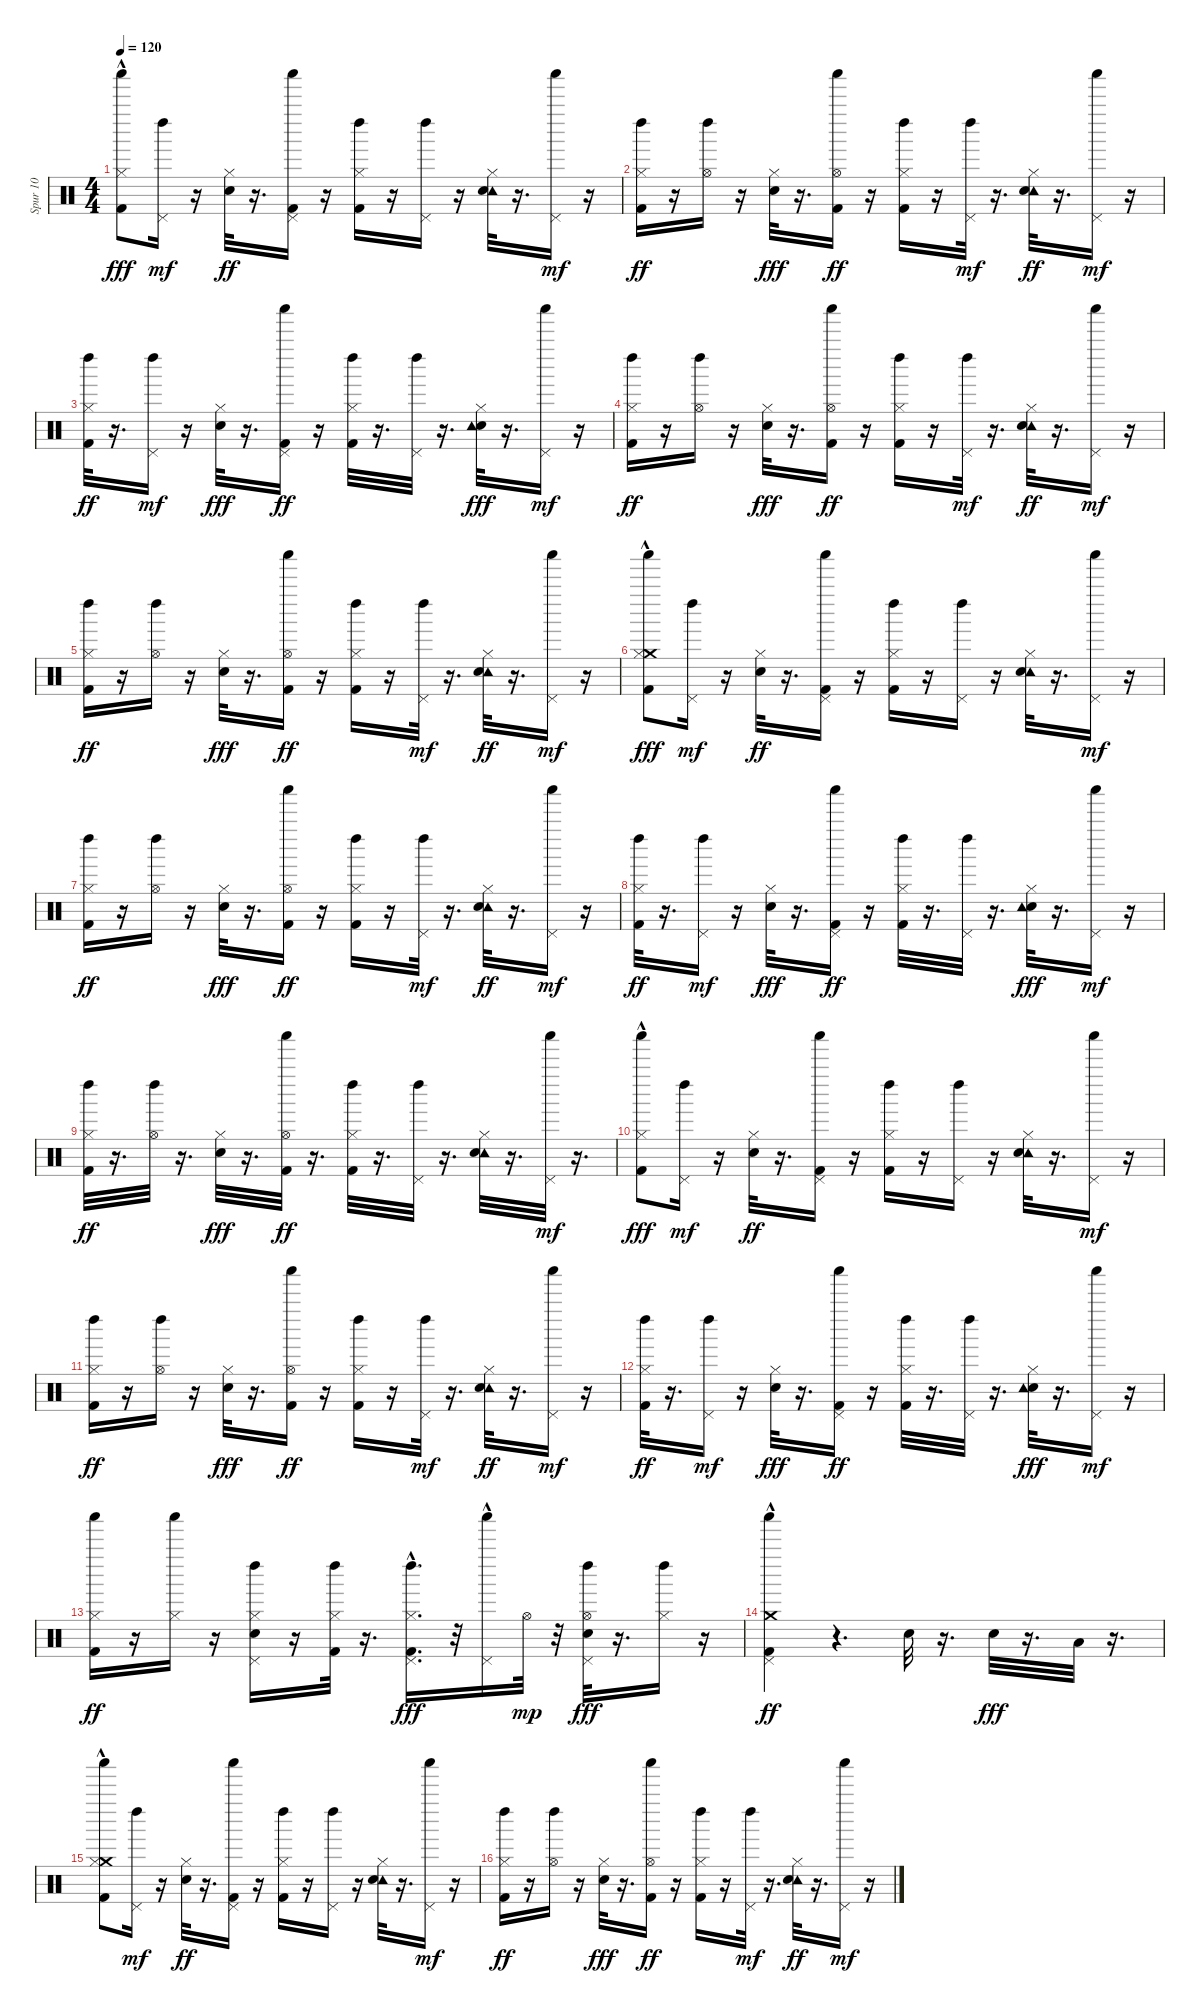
\track ("Spur 10" "Spur 10") {instrument percussion}
\staff {score}
\articulation defaults
\ts (4 4)
\tempo 120
\clef neutral
\ks c
("Shaker (hit)"{hac} "Kick (hit) 2" "Hi-Hat (closed)").8{dy fff} ("Left Maraca (hit)" "Pedal Hi-Hat (hit)").16{dy mf} r.16 ("Electric Snare (hit)" "Hi-Hat (closed)").32{dy ff} r.16{d} ("Shaker (hit)" "Kick (hit) 2" "Pedal Hi-Hat (hit)").16 r.16 ("Left Maraca (hit)" "Hi-Hat (closed)" "Kick (hit) 2").16 r.16 ("Left Maraca (hit)" "Pedal Hi-Hat (hit)").16 r.16 ("Tambourine (hit)" "Electric Snare (hit)" "Hi-Hat (closed)").32 r.16{d} ("Pedal Hi-Hat (hit)" "Shaker (hit)").16{dy mf} r.16 |
("Kick (hit) 2" "Hi-Hat (closed)" "Left Maraca (hit)").16{dy ff} r.16 ("Left Maraca (hit)" "Hi-Hat (open)").16 r.16 ("Hi-Hat (closed)" "Electric Snare (hit)").32{dy fff} r.16{d} ("Shaker (hit)" "Hi-Hat (open)" "Kick (hit) 2").16{dy ff} r.16 ("Left Maraca (hit)" "Hi-Hat (closed)" "Kick (hit) 2").16 r.16 ("Left Maraca (hit)" "Pedal Hi-Hat (hit)").32{dy mf} r.16{d} ("Tambourine (hit)" "Electric Snare (hit)" "Hi-Hat (closed)").32{dy ff} r.16{d} ("Shaker (hit)" "Pedal Hi-Hat (hit)").16{dy mf} r.16 |
("Kick (hit) 2" "Hi-Hat (closed)" "Left Maraca (hit)").32{dy ff} r.16{d} ("Left Maraca (hit)" "Pedal Hi-Hat (hit)").16{dy mf} r.16 ("Hi-Hat (closed)" "Electric Snare (hit)").32{dy fff} r.16{d} ("Shaker (hit)" "Kick (hit) 2" "Pedal Hi-Hat (hit)").16{dy ff} r.16 ("Left Maraca (hit)" "Hi-Hat (closed)" "Kick (hit) 2").32 r.16{d} ("Pedal Hi-Hat (hit)" "Left Maraca (hit)").32 r.16{d} ("Hi-Hat (closed)" "Electric Snare (hit)" "Tambourine (hit)").32{dy fff} r.16{d} ("Shaker (hit)" "Pedal Hi-Hat (hit)").16{dy mf} r.16 |
("Kick (hit) 2" "Hi-Hat (closed)" "Left Maraca (hit)").16{dy ff} r.16 ("Left Maraca (hit)" "Hi-Hat (open)").16 r.16 ("Hi-Hat (closed)" "Electric Snare (hit)").32{dy fff} r.16{d} ("Shaker (hit)" "Hi-Hat (open)" "Kick (hit) 2").16{dy ff} r.16 ("Left Maraca (hit)" "Hi-Hat (closed)" "Kick (hit) 2").16 r.16 ("Left Maraca (hit)" "Pedal Hi-Hat (hit)").32{dy mf} r.16{d} ("Tambourine (hit)" "Electric Snare (hit)" "Hi-Hat (closed)").32{dy ff} r.16{d} ("Shaker (hit)" "Pedal Hi-Hat (hit)").16{dy mf} r.16 |
("Kick (hit) 2" "Hi-Hat (closed)" "Left Maraca (hit)").16{dy ff} r.16 ("Left Maraca (hit)" "Hi-Hat (open)").16 r.16 ("Hi-Hat (closed)" "Electric Snare (hit)").32{dy fff} r.16{d} ("Shaker (hit)" "Hi-Hat (open)" "Kick (hit) 2").16{dy ff} r.16 ("Left Maraca (hit)" "Hi-Hat (closed)" "Kick (hit) 2").16 r.16 ("Left Maraca (hit)" "Pedal Hi-Hat (hit)").32{dy mf} r.16{d} ("Tambourine (hit)" "Electric Snare (hit)" "Hi-Hat (closed)").32{dy ff} r.16{d} ("Shaker (hit)" "Pedal Hi-Hat (hit)").16{dy mf} r.16 |
("Crash medium (hit)" "Shaker (hit)"{hac} "Kick (hit) 2" "Hi-Hat (closed)").8{dy fff} ("Left Maraca (hit)" "Pedal Hi-Hat (hit)").16{dy mf} r.16 ("Electric Snare (hit)" "Hi-Hat (closed)").32{dy ff} r.16{d} ("Shaker (hit)" "Kick (hit) 2" "Pedal Hi-Hat (hit)").16 r.16 ("Left Maraca (hit)" "Hi-Hat (closed)" "Kick (hit) 2").16 r.16 ("Left Maraca (hit)" "Pedal Hi-Hat (hit)").16 r.16 ("Tambourine (hit)" "Electric Snare (hit)" "Hi-Hat (closed)").32 r.16{d} ("Pedal Hi-Hat (hit)" "Shaker (hit)").16{dy mf} r.16 |
("Kick (hit) 2" "Hi-Hat (closed)" "Left Maraca (hit)").16{dy ff} r.16 ("Left Maraca (hit)" "Hi-Hat (open)").16 r.16 ("Hi-Hat (closed)" "Electric Snare (hit)").32{dy fff} r.16{d} ("Shaker (hit)" "Hi-Hat (open)" "Kick (hit) 2").16{dy ff} r.16 ("Left Maraca (hit)" "Hi-Hat (closed)" "Kick (hit) 2").16 r.16 ("Left Maraca (hit)" "Pedal Hi-Hat (hit)").32{dy mf} r.16{d} ("Tambourine (hit)" "Electric Snare (hit)" "Hi-Hat (closed)").32{dy ff} r.16{d} ("Shaker (hit)" "Pedal Hi-Hat (hit)").16{dy mf} r.16 |
("Kick (hit) 2" "Hi-Hat (closed)" "Left Maraca (hit)").32{dy ff} r.16{d} ("Left Maraca (hit)" "Pedal Hi-Hat (hit)").16{dy mf} r.16 ("Hi-Hat (closed)" "Electric Snare (hit)").32{dy fff} r.16{d} ("Shaker (hit)" "Kick (hit) 2" "Pedal Hi-Hat (hit)").16{dy ff} r.16 ("Left Maraca (hit)" "Hi-Hat (closed)" "Kick (hit) 2").32 r.16{d} ("Pedal Hi-Hat (hit)" "Left Maraca (hit)").32 r.16{d} ("Hi-Hat (closed)" "Electric Snare (hit)" "Tambourine (hit)").32{dy fff} r.16{d} ("Shaker (hit)" "Pedal Hi-Hat (hit)").16{dy mf} r.16 |
("Kick (hit) 2" "Hi-Hat (closed)" "Left Maraca (hit)").32{dy ff} r.16{d} ("Left Maraca (hit)" "Hi-Hat (open)").32 r.16{d} ("Electric Snare (hit)" "Hi-Hat (closed)").32{dy fff} r.16{d} ("Hi-Hat (open)" "Kick (hit) 2" "Shaker (hit)").32{dy ff} r.16{d} ("Left Maraca (hit)" "Hi-Hat (closed)" "Kick (hit) 2").32 r.16{d} ("Left Maraca (hit)" "Pedal Hi-Hat (hit)").32 r.16{d} ("Tambourine (hit)" "Electric Snare (hit)" "Hi-Hat (closed)").32 r.16{d} ("Pedal Hi-Hat (hit)" "Shaker (hit)").32{dy mf} r.16{d} |
("Shaker (hit)"{hac} "Kick (hit) 2" "Hi-Hat (closed)").8{dy fff} ("Left Maraca (hit)" "Pedal Hi-Hat (hit)").16{dy mf} r.16 ("Electric Snare (hit)" "Hi-Hat (closed)").32{dy ff} r.16{d} ("Shaker (hit)" "Kick (hit) 2" "Pedal Hi-Hat (hit)").16 r.16 ("Left Maraca (hit)" "Hi-Hat (closed)" "Kick (hit) 2").16 r.16 ("Left Maraca (hit)" "Pedal Hi-Hat (hit)").16 r.16 ("Tambourine (hit)" "Electric Snare (hit)" "Hi-Hat (closed)").32 r.16{d} ("Pedal Hi-Hat (hit)" "Shaker (hit)").16{dy mf} r.16 |
("Kick (hit) 2" "Hi-Hat (closed)" "Left Maraca (hit)").16{dy ff} r.16 ("Left Maraca (hit)" "Hi-Hat (open)").16 r.16 ("Hi-Hat (closed)" "Electric Snare (hit)").32{dy fff} r.16{d} ("Shaker (hit)" "Hi-Hat (open)" "Kick (hit) 2").16{dy ff} r.16 ("Left Maraca (hit)" "Hi-Hat (closed)" "Kick (hit) 2").16 r.16 ("Left Maraca (hit)" "Pedal Hi-Hat (hit)").32{dy mf} r.16{d} ("Tambourine (hit)" "Electric Snare (hit)" "Hi-Hat (closed)").32{dy ff} r.16{d} ("Shaker (hit)" "Pedal Hi-Hat (hit)").16{dy mf} r.16 |
("Kick (hit) 2" "Hi-Hat (closed)" "Left Maraca (hit)").32{dy ff} r.16{d} ("Left Maraca (hit)" "Pedal Hi-Hat (hit)").16{dy mf} r.16 ("Hi-Hat (closed)" "Electric Snare (hit)").32{dy fff} r.16{d} ("Shaker (hit)" "Kick (hit) 2" "Pedal Hi-Hat (hit)").16{dy ff} r.16 ("Left Maraca (hit)" "Hi-Hat (closed)" "Kick (hit) 2").32 r.16{d} ("Pedal Hi-Hat (hit)" "Left Maraca (hit)").32 r.16{d} ("Hi-Hat (closed)" "Electric Snare (hit)" "Tambourine (hit)").32{dy fff} r.16{d} ("Shaker (hit)" "Pedal Hi-Hat (hit)").16{dy mf} r.16 |
("Hi-Hat (closed)" "Kick (hit) 2" "Shaker (hit)").16{dy ff} r.16 ("Shaker (hit)" "Hi-Hat (closed)").16 r.16 ("Left Maraca (hit)" "Pedal Hi-Hat (hit)" "Electric Snare (hit)" "Hi-Hat (closed)").16 r.16 ("Left Maraca (hit)" "Kick (hit) 2" "Hi-Hat (closed)").32 r.16{d} ("Pedal Hi-Hat (hit)" "Kick (hit) 2"{hac} "Left Maraca (hit)" "Hi-Hat (closed)").16{d dy fff} r.32 ("Shaker (hit)"{hac} "Pedal Hi-Hat (hit)").16 "Hi-Hat (open)".32{dy mp} r.32 ("Left Maraca (hit)" "Pedal Hi-Hat (hit)" "Electric Snare (hit)" "Hi-Hat (open)").32{dy fff} r.16{d} ("Left Maraca (hit)" "Hi-Hat (closed)").16 r.16 |
("Shaker (hit)" "Kick (hit) 2"{hac} "Crash medium (hit)" "Pedal Hi-Hat (hit)").4{dy ff} r.4{d} "Electric Snare (hit)".32 r.16{d} "Electric Snare (hit)".32{dy fff} r.16{d} "Low Tom (hit)".32 r.16{d} |
("Crash medium (hit)" "Shaker (hit)"{hac} "Kick (hit) 2" "Hi-Hat (closed)").8 ("Left Maraca (hit)" "Pedal Hi-Hat (hit)").16{dy mf} r.16 ("Electric Snare (hit)" "Hi-Hat (closed)").32{dy ff} r.16{d} ("Shaker (hit)" "Kick (hit) 2" "Pedal Hi-Hat (hit)").16 r.16 ("Left Maraca (hit)" "Hi-Hat (closed)" "Kick (hit) 2").16 r.16 ("Left Maraca (hit)" "Pedal Hi-Hat (hit)").16 r.16 ("Tambourine (hit)" "Electric Snare (hit)" "Hi-Hat (closed)").32 r.16{d} ("Pedal Hi-Hat (hit)" "Shaker (hit)").16{dy mf} r.16 |
("Kick (hit) 2" "Hi-Hat (closed)" "Left Maraca (hit)").16{dy ff} r.16 ("Left Maraca (hit)" "Hi-Hat (open)").16 r.16 ("Hi-Hat (closed)" "Electric Snare (hit)").32{dy fff} r.16{d} ("Shaker (hit)" "Hi-Hat (open)" "Kick (hit) 2").16{dy ff} r.16 ("Left Maraca (hit)" "Hi-Hat (closed)" "Kick (hit) 2").16 r.16 ("Left Maraca (hit)" "Pedal Hi-Hat (hit)").32{dy mf} r.16{d} ("Tambourine (hit)" "Electric Snare (hit)" "Hi-Hat (closed)").32{dy ff} r.16{d} ("Shaker (hit)" "Pedal Hi-Hat (hit)").16{dy mf} r.16
